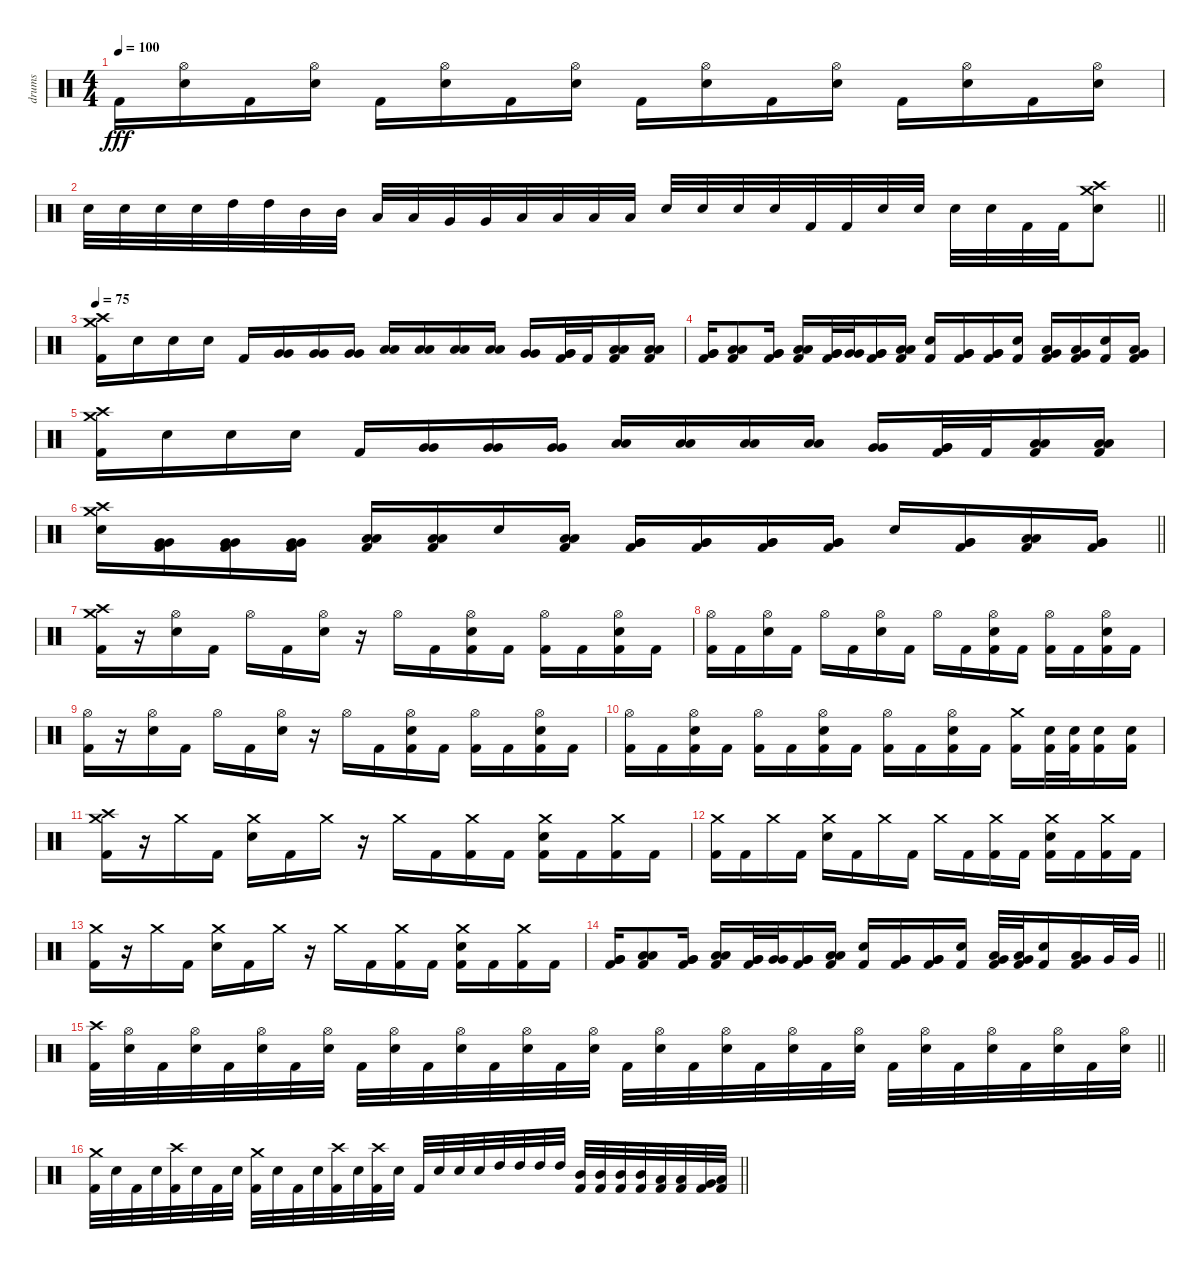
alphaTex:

\track ("drums" "drums") {instrument percussion}
\staff {score}
\articulation defaults
\ts (4 4)
\tempo 100
\clef neutral
\ks c "Kick (hit) 2".16{dy fff}
("Hi-Hat (open)" "Electric Snare (hit)").16 "Kick (hit) 2".16 ("Hi-Hat (open)" "Electric Snare (hit)").16 "Kick (hit) 2".16 ("Hi-Hat (open)" "Electric Snare (hit)").16 "Kick (hit) 2".16 ("Hi-Hat (open)" "Electric Snare (hit)").16 "Kick (hit) 2".16 ("Hi-Hat (open)" "Electric Snare (hit)").16 "Kick (hit) 2".16 ("Hi-Hat (open)" "Electric Snare (hit)").16 "Kick (hit) 2".16 ("Hi-Hat (open)" "Electric Snare (hit)").16 "Kick (hit) 2".16 ("Hi-Hat (open)" "Electric Snare (hit)").16 |
\barLineRight lightlight "Electric Snare (hit)".32 "Electric Snare (hit)".32 "Electric Snare (hit)".32 "Electric Snare (hit)".32 "High Tom (hit)".32 "High Tom (hit)".32 "Mid Tom (hit)".32 "Mid Tom (hit)".32 "Low Tom (hit)".32 "Low Tom (hit)".32 "Very Low Tom (hit)".32 "Very Low Tom (hit)".32 "Low Floor Tom (hit)".32 "Low Floor Tom (hit)".32 "Low Floor Tom (hit)".32 "Low Floor Tom (hit)".32 "Electric Snare (hit)".32 "Electric Snare (hit)".32 "Electric Snare (hit)".32 "Electric Snare (hit)".32 "Kick (hit) 2".32 "Kick (hit) 2".32 "Electric Snare (hit)".32 "Electric Snare (hit)".32 "Electric Snare (hit)".32 "Electric Snare (hit)".32 "Kick (hit) 2".32 "Kick (hit) 2".32
("Crash medium (hit)" "Crash high (hit)" "Electric Snare (hit)").8 |
\section ("" "")
\tempo 75
("Crash high (hit)" "Crash medium (hit)" "Kick (hit) 2").16 "Electric Snare (hit)".16 "Electric Snare (hit)".16 "Electric Snare (hit)".16 "Kick (hit) 2".16 ("Very Low Tom (hit)" "Very Low Tom (hit)").16 ("Very Low Tom (hit)" "Very Low Tom (hit)").16 ("Very Low Tom (hit)" "Very Low Tom (hit)").16 ("Low Floor Tom (hit)" "Low Floor Tom (hit)").16 ("Low Floor Tom (hit)" "Low Floor Tom (hit)").16 ("Low Floor Tom (hit)" "Low Floor Tom (hit)").16 ("Low Floor Tom (hit)" "Low Floor Tom (hit)").16 ("Very Low Tom (hit)" "Very Low Tom (hit)").16 ("Very Low Tom (hit)" "Very Low Tom (hit)" "Kick (hit) 2").32 "Kick (hit) 2".32 ("Low Floor Tom (hit)" "Low Floor Tom (hit)" "Kick (hit) 2").16 ("Low Floor Tom (hit)" "Low Floor Tom (hit)" "Kick (hit) 2").16 |
("Very Low Tom (hit)" "Very Low Tom (hit)" "Kick (hit) 2").16 ("Low Floor Tom (hit)" "Low Floor Tom (hit)" "Kick (hit) 2").8 ("Very Low Tom (hit)" "Very Low Tom (hit)" "Kick (hit) 2").16 ("Low Floor Tom (hit)" "Low Floor Tom (hit)" "Kick (hit) 2").16 ("Very Low Tom (hit)" "Very Low Tom (hit)" "Kick (hit) 2").32 ("Very Low Tom (hit)" "Very Low Tom (hit)").32 ("Very Low Tom (hit)" "Very Low Tom (hit)" "Kick (hit) 2").16 ("Low Floor Tom (hit)" "Low Floor Tom (hit)" "Kick (hit) 2").16 ("Electric Snare (hit)" "Kick (hit) 2").16 ("Very Low Tom (hit)" "Very Low Tom (hit)" "Kick (hit) 2").16 ("Very Low Tom (hit)" "Very Low Tom (hit)" "Kick (hit) 2").16 ("Electric Snare (hit)" "Kick (hit) 2").16 ("Very Low Tom (hit)" "Low Floor Tom (hit)" "Kick (hit) 2").16 ("Very Low Tom (hit)" "Low Floor Tom (hit)" "Kick (hit) 2").16 ("Electric Snare (hit)" "Kick (hit) 2").16 ("Very Low Tom (hit)" "Low Floor Tom (hit)" "Kick (hit) 2").16 |
("Crash high (hit)" "Crash medium (hit)" "Kick (hit) 2").16 "Electric Snare (hit)".16 "Electric Snare (hit)".16 "Electric Snare (hit)".16 "Kick (hit) 2".16 ("Very Low Tom (hit)" "Very Low Tom (hit)").16 ("Very Low Tom (hit)" "Very Low Tom (hit)").16 ("Very Low Tom (hit)" "Very Low Tom (hit)").16 ("Low Floor Tom (hit)" "Low Floor Tom (hit)").16 ("Low Floor Tom (hit)" "Low Floor Tom (hit)").16 ("Low Floor Tom (hit)" "Low Floor Tom (hit)").16 ("Low Floor Tom (hit)" "Low Floor Tom (hit)").16 ("Very Low Tom (hit)" "Very Low Tom (hit)").16 ("Very Low Tom (hit)" "Very Low Tom (hit)" "Kick (hit) 2").32 "Kick (hit) 2".32 ("Low Floor Tom (hit)" "Low Floor Tom (hit)" "Kick (hit) 2").16 ("Low Floor Tom (hit)" "Low Floor Tom (hit)" "Kick (hit) 2").16 |
\barLineRight lightlight
("Crash high (hit)" "Crash medium (hit)" "Electric Snare (hit)").16 ("Very Low Tom (hit)" "Very Low Tom (hit)" "Kick (hit) 2").16 ("Very Low Tom (hit)" "Very Low Tom (hit)" "Kick (hit) 2").16 ("Very Low Tom (hit)" "Very Low Tom (hit)" "Kick (hit) 2").16 ("Low Floor Tom (hit)" "Low Floor Tom (hit)" "Kick (hit) 2").16 ("Low Floor Tom (hit)" "Low Floor Tom (hit)" "Kick (hit) 2").16 "Electric Snare (hit)".16 ("Low Floor Tom (hit)" "Low Floor Tom (hit)" "Kick (hit) 2").16 ("Very Low Tom (hit)" "Very Low Tom (hit)" "Kick (hit) 2").16 ("Very Low Tom (hit)" "Very Low Tom (hit)" "Kick (hit) 2").16 ("Very Low Tom (hit)" "Very Low Tom (hit)" "Kick (hit) 2").16 ("Very Low Tom (hit)" "Very Low Tom (hit)" "Kick (hit) 2").16 "Electric Snare (hit)".16 ("Very Low Tom (hit)" "Very Low Tom (hit)" "Kick (hit) 2").16 ("Low Floor Tom (hit)" "Low Floor Tom (hit)" "Kick (hit) 2").16 ("Very Low Tom (hit)" "Very Low Tom (hit)" "Kick (hit) 2").16 |
\section ("" "")
("Crash high (hit)" "Crash medium (hit)" "Kick (hit) 2").16 r.16 ("Hi-Hat (open)" "Electric Snare (hit)").16 "Kick (hit) 2".16 "Hi-Hat (open)".16 "Kick (hit) 2".16 ("Hi-Hat (open)" "Electric Snare (hit)").16 r.16 "Hi-Hat (open)".16 "Kick (hit) 2".16 ("Hi-Hat (open)" "Electric Snare (hit)" "Kick (hit) 2").16 "Kick (hit) 2".16 ("Hi-Hat (open)" "Kick (hit) 2").16 "Kick (hit) 2".16 ("Hi-Hat (open)" "Electric Snare (hit)" "Kick (hit) 2").16 "Kick (hit) 2".16 |
("Hi-Hat (open)" "Kick (hit) 2").16 "Kick (hit) 2".16 ("Hi-Hat (open)" "Electric Snare (hit)").16 "Kick (hit) 2".16 "Hi-Hat (open)".16 "Kick (hit) 2".16 ("Hi-Hat (open)" "Electric Snare (hit)").16 "Kick (hit) 2".16 "Hi-Hat (open)".16 "Kick (hit) 2".16 ("Hi-Hat (open)" "Electric Snare (hit)" "Kick (hit) 2").16 "Kick (hit) 2".16 ("Hi-Hat (open)" "Kick (hit) 2").16 "Kick (hit) 2".16 ("Hi-Hat (open)" "Electric Snare (hit)" "Kick (hit) 2").16 "Kick (hit) 2".16 |
("Hi-Hat (open)" "Kick (hit) 2").16 r.16 ("Hi-Hat (open)" "Electric Snare (hit)").16 "Kick (hit) 2".16 "Hi-Hat (open)".16 "Kick (hit) 2".16 ("Hi-Hat (open)" "Electric Snare (hit)").16 r.16 "Hi-Hat (open)".16 "Kick (hit) 2".16 ("Hi-Hat (open)" "Electric Snare (hit)" "Kick (hit) 2").16 "Kick (hit) 2".16 ("Hi-Hat (open)" "Kick (hit) 2").16 "Kick (hit) 2".16 ("Hi-Hat (open)" "Electric Snare (hit)" "Kick (hit) 2").16 "Kick (hit) 2".16 |
("Hi-Hat (open)" "Kick (hit) 2").16 "Kick (hit) 2".16 ("Hi-Hat (open)" "Electric Snare (hit)" "Kick (hit) 2").16 "Kick (hit) 2".16 ("Hi-Hat (open)" "Kick (hit) 2").16 "Kick (hit) 2".16 ("Hi-Hat (open)" "Electric Snare (hit)" "Kick (hit) 2").16 "Kick (hit) 2".16 ("Hi-Hat (open)" "Kick (hit) 2").16 "Kick (hit) 2".16 ("Hi-Hat (open)" "Electric Snare (hit)" "Kick (hit) 2").16 "Kick (hit) 2".16 ("Crash medium (hit)" "Kick (hit) 2").16 ("Electric Snare (hit)" "Kick (hit) 2").32 ("Electric Snare (hit)" "Kick (hit) 2").32 ("Electric Snare (hit)" "Kick (hit) 2").16 ("Electric Snare (hit)" "Kick (hit) 2").16 |
("Crash high (hit)" "Crash medium (hit)" "Kick (hit) 2").16 r.16 "Crash medium (hit)".16 "Kick (hit) 2".16 ("Crash medium (hit)" "Electric Snare (hit)").16 "Kick (hit) 2".16 "Crash medium (hit)".16 r.16 "Crash medium (hit)".16 "Kick (hit) 2".16 ("Crash medium (hit)" "Kick (hit) 2").16 "Kick (hit) 2".16 ("Crash medium (hit)" "Electric Snare (hit)" "Kick (hit) 2").16 "Kick (hit) 2".16 ("Crash medium (hit)" "Kick (hit) 2").16 "Kick (hit) 2".16 |
("Crash medium (hit)" "Kick (hit) 2").16 "Kick (hit) 2".16 "Crash medium (hit)".16 "Kick (hit) 2".16 ("Crash medium (hit)" "Electric Snare (hit)").16 "Kick (hit) 2".16 "Crash medium (hit)".16 "Kick (hit) 2".16 "Crash medium (hit)".16 "Kick (hit) 2".16 ("Crash medium (hit)" "Kick (hit) 2").16 "Kick (hit) 2".16 ("Crash medium (hit)" "Electric Snare (hit)" "Kick (hit) 2").16 "Kick (hit) 2".16 ("Crash medium (hit)" "Kick (hit) 2").16 "Kick (hit) 2".16 |
("Crash medium (hit)" "Kick (hit) 2").16 r.16 "Crash medium (hit)".16 "Kick (hit) 2".16 ("Crash medium (hit)" "Electric Snare (hit)").16 "Kick (hit) 2".16 "Crash medium (hit)".16 r.16 "Crash medium (hit)".16 "Kick (hit) 2".16 ("Crash medium (hit)" "Kick (hit) 2").16 "Kick (hit) 2".16 ("Crash medium (hit)" "Electric Snare (hit)" "Kick (hit) 2").16 "Kick (hit) 2".16 ("Crash medium (hit)" "Kick (hit) 2").16 "Kick (hit) 2".16 |
\barLineRight lightlight
("Very Low Tom (hit)" "Very Low Tom (hit)" "Kick (hit) 2").16 ("Low Floor Tom (hit)" "Low Floor Tom (hit)" "Kick (hit) 2").8 ("Very Low Tom (hit)" "Very Low Tom (hit)" "Kick (hit) 2").16 ("Low Floor Tom (hit)" "Low Floor Tom (hit)" "Kick (hit) 2").16 ("Very Low Tom (hit)" "Very Low Tom (hit)" "Kick (hit) 2").32 ("Very Low Tom (hit)" "Very Low Tom (hit)").32 ("Very Low Tom (hit)" "Very Low Tom (hit)" "Kick (hit) 2").16 ("Low Floor Tom (hit)" "Low Floor Tom (hit)" "Kick (hit) 2").16 ("Electric Snare (hit)" "Kick (hit) 2").16 ("Very Low Tom (hit)" "Very Low Tom (hit)" "Kick (hit) 2").16 ("Very Low Tom (hit)" "Very Low Tom (hit)" "Kick (hit) 2").16 ("Electric Snare (hit)" "Kick (hit) 2").16 ("Very Low Tom (hit)" "Low Floor Tom (hit)" "Kick (hit) 2").32 ("Very Low Tom (hit)" "Low Floor Tom (hit)" "Kick (hit) 2").32 ("Electric Snare (hit)" "Kick (hit) 2").16 ("Very Low Tom (hit)" "Low Floor Tom (hit)" "Kick (hit) 2").16 "Very Low Tom (hit)".32 "Very Low Tom (hit)".32 |
\section ("" "")
\barLineRight lightlight
("Crash high (hit)" "Kick (hit) 2").32 ("Hi-Hat (open)" "Electric Snare (hit)").32 "Kick (hit) 2".32 ("Hi-Hat (open)" "Electric Snare (hit)").32 "Kick (hit) 2".32 ("Hi-Hat (open)" "Electric Snare (hit)").32 "Kick (hit) 2".32 ("Hi-Hat (open)" "Electric Snare (hit)").32 "Kick (hit) 2".32 ("Hi-Hat (open)" "Electric Snare (hit)").32 "Kick (hit) 2".32 ("Hi-Hat (open)" "Electric Snare (hit)").32 "Kick (hit) 2".32 ("Hi-Hat (open)" "Electric Snare (hit)").32 "Kick (hit) 2".32 ("Hi-Hat (open)" "Electric Snare (hit)").32 "Kick (hit) 2".32 ("Hi-Hat (open)" "Electric Snare (hit)").32 "Kick (hit) 2".32 ("Hi-Hat (open)" "Electric Snare (hit)").32 "Kick (hit) 2".32 ("Hi-Hat (open)" "Electric Snare (hit)").32 "Kick (hit) 2".32 ("Hi-Hat (open)" "Electric Snare (hit)").32 "Kick (hit) 2".32 ("Hi-Hat (open)" "Electric Snare (hit)").32 "Kick (hit) 2".32 ("Hi-Hat (open)" "Electric Snare (hit)").32 "Kick (hit) 2".32 ("Hi-Hat (open)" "Electric Snare (hit)").32 "Kick (hit) 2".32 ("Hi-Hat (open)" "Electric Snare (hit)").32 |
\barLineRight lightlight
("Crash medium (hit)" "Kick (hit) 2").32 "Electric Snare (hit)".32 "Kick (hit) 2".32 "Electric Snare (hit)".32 ("Crash high (hit)" "Kick (hit) 2").32 "Electric Snare (hit)".32 "Kick (hit) 2".32 "Electric Snare (hit)".32 ("Crash medium (hit)" "Kick (hit) 2").32 "Electric Snare (hit)".32 "Kick (hit) 2".32 "Electric Snare (hit)".32 ("Crash high (hit)" "Kick (hit) 2").32 "Electric Snare (hit)".32 ("Crash high (hit)" "Kick (hit) 2").32 "Electric Snare (hit)".32 "Kick (hit) 2".32 "Electric Snare (hit)".32 "Electric Snare (hit)".32 "Electric Snare (hit)".32 "High Tom (hit)".32 "High Tom (hit)".32 "High Tom (hit)".32 "High Tom (hit)".32 ("Mid Tom (hit)" "Kick (hit) 2").32 ("Mid Tom (hit)" "Kick (hit) 2").32 ("Mid Tom (hit)" "Kick (hit) 2").32 ("Mid Tom (hit)" "Kick (hit) 2").32 ("Low Tom (hit)" "Kick (hit) 2").32 ("Low Tom (hit)" "Kick (hit) 2").32 ("Very Low Tom (hit)" "Kick (hit) 2").32 ("Low Floor Tom (hit)" "Kick (hit) 2").32
